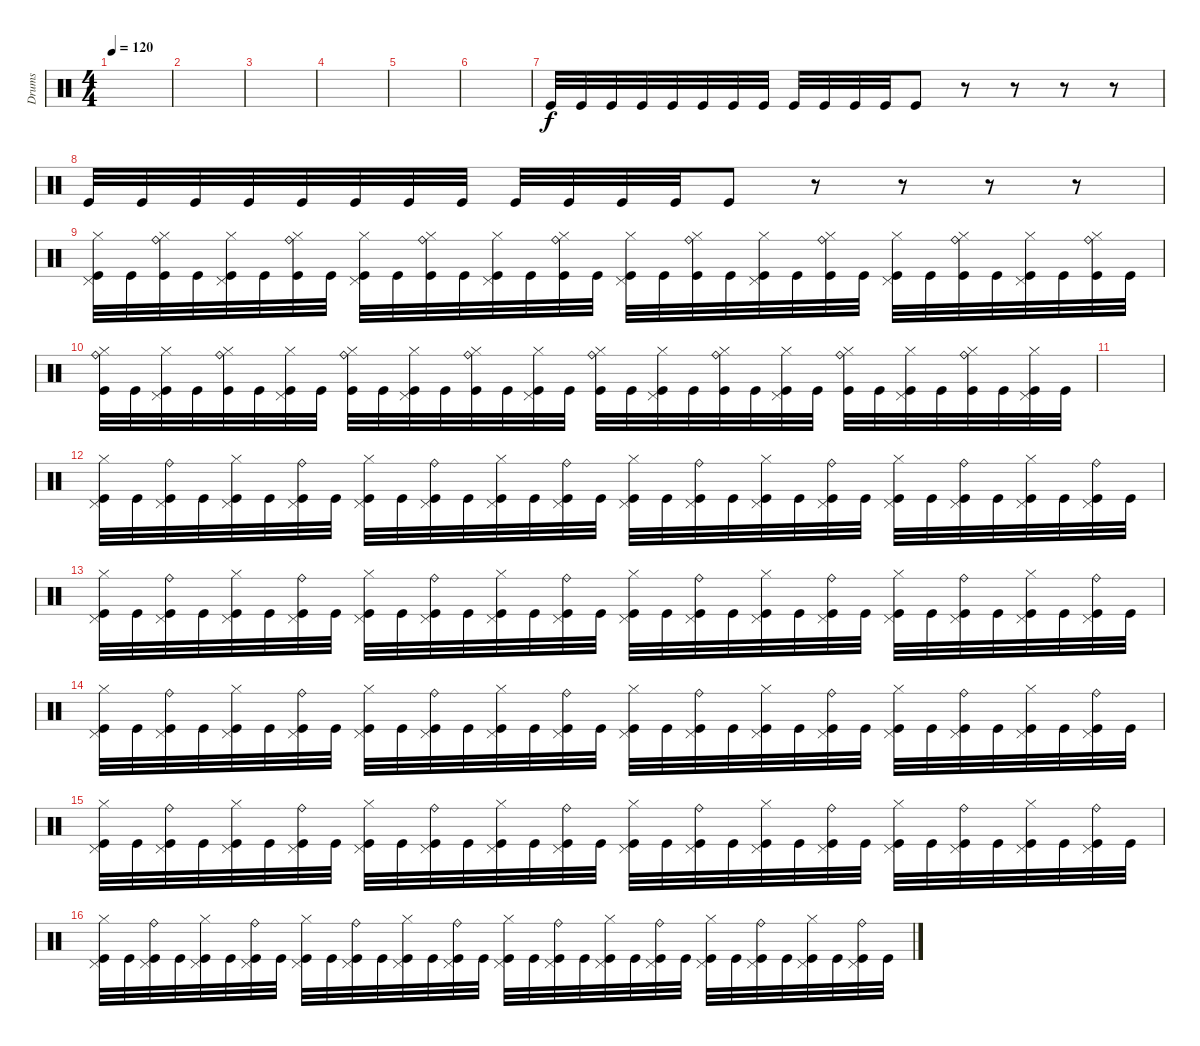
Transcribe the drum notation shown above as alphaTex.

\track ("Drums" "Drums") {instrument percussion}
\staff {score}
\articulation defaults
\ts (4 4)
\tempo 120
\clef neutral
\ks c
|
|
|
|
|
|
"Kick (hit)".32 "Kick (hit)".32 "Kick (hit)".32 "Kick (hit)".32 "Kick (hit)".32 "Kick (hit)".32 "Kick (hit)".32 "Kick (hit)".32 "Kick (hit)".32 "Kick (hit)".32 "Kick (hit)".32 "Kick (hit)".32 "Kick (hit)".8 r.8 r.8 r.8 r.8 |
"Kick (hit)".32 "Kick (hit)".32 "Kick (hit)".32 "Kick (hit)".32 "Kick (hit)".32 "Kick (hit)".32 "Kick (hit)".32 "Kick (hit)".32 "Kick (hit)".32 "Kick (hit)".32 "Kick (hit)".32 "Kick (hit)".32 "Kick (hit)".8 r.8 r.8 r.8 r.8 |
("Pedal Hi-Hat (hit)" "Hi-Hat (closed)" "Kick (hit)").32 "Kick (hit)".32 ("Ride (bell)" "Hi-Hat (closed)" "Kick (hit)").32 "Kick (hit)".32 ("Pedal Hi-Hat (hit)" "Hi-Hat (closed)" "Kick (hit)").32 "Kick (hit)".32 ("Ride (bell)" "Hi-Hat (closed)" "Kick (hit)").32 "Kick (hit)".32 ("Pedal Hi-Hat (hit)" "Hi-Hat (closed)" "Kick (hit)").32 "Kick (hit)".32 ("Ride (bell)" "Hi-Hat (closed)" "Kick (hit)").32 "Kick (hit)".32 ("Pedal Hi-Hat (hit)" "Hi-Hat (closed)" "Kick (hit)").32 "Kick (hit)".32 ("Ride (bell)" "Hi-Hat (closed)" "Kick (hit)").32 "Kick (hit)".32 ("Pedal Hi-Hat (hit)" "Hi-Hat (closed)" "Kick (hit)").32 "Kick (hit)".32 ("Ride (bell)" "Hi-Hat (closed)" "Kick (hit)").32 "Kick (hit)".32 ("Pedal Hi-Hat (hit)" "Hi-Hat (closed)" "Kick (hit)").32 "Kick (hit)".32 ("Ride (bell)" "Hi-Hat (closed)" "Kick (hit)").32 "Kick (hit)".32 ("Pedal Hi-Hat (hit)" "Hi-Hat (closed)" "Kick (hit)").32 "Kick (hit)".32 ("Ride (bell)" "Hi-Hat (closed)" "Kick (hit)").32 "Kick (hit)".32 ("Pedal Hi-Hat (hit)" "Hi-Hat (closed)" "Kick (hit)").32 "Kick (hit)".32 ("Ride (bell)" "Hi-Hat (closed)" "Kick (hit)").32 "Kick (hit)".32 |
("Ride (bell)" "Hi-Hat (closed)" "Kick (hit)").32 "Kick (hit)".32 ("Pedal Hi-Hat (hit)" "Hi-Hat (closed)" "Kick (hit)").32 "Kick (hit)".32 ("Ride (bell)" "Hi-Hat (closed)" "Kick (hit)").32 "Kick (hit)".32 ("Pedal Hi-Hat (hit)" "Hi-Hat (closed)" "Kick (hit)").32 "Kick (hit)".32 ("Ride (bell)" "Hi-Hat (closed)" "Kick (hit)").32 "Kick (hit)".32 ("Pedal Hi-Hat (hit)" "Hi-Hat (closed)" "Kick (hit)").32 "Kick (hit)".32 ("Ride (bell)" "Hi-Hat (closed)" "Kick (hit)").32 "Kick (hit)".32 ("Pedal Hi-Hat (hit)" "Hi-Hat (closed)" "Kick (hit)").32 "Kick (hit)".32 ("Ride (bell)" "Hi-Hat (closed)" "Kick (hit)").32 "Kick (hit)".32 ("Pedal Hi-Hat (hit)" "Hi-Hat (closed)" "Kick (hit)").32 "Kick (hit)".32 ("Ride (bell)" "Hi-Hat (closed)" "Kick (hit)").32 "Kick (hit)".32 ("Pedal Hi-Hat (hit)" "Hi-Hat (closed)" "Kick (hit)").32 "Kick (hit)".32 ("Ride (bell)" "Hi-Hat (closed)" "Kick (hit)").32 "Kick (hit)".32 ("Pedal Hi-Hat (hit)" "Hi-Hat (closed)" "Kick (hit)").32 "Kick (hit)".32 ("Ride (bell)" "Hi-Hat (closed)" "Kick (hit)").32 "Kick (hit)".32 ("Pedal Hi-Hat (hit)" "Hi-Hat (closed)" "Kick (hit)").32 "Kick (hit)".32 |
|
("Hi-Hat (closed)" "Pedal Hi-Hat (hit)" "Kick (hit)").32 "Kick (hit)".32 ("Ride (bell)" "Pedal Hi-Hat (hit)" "Kick (hit)").32 "Kick (hit)".32 ("Hi-Hat (closed)" "Pedal Hi-Hat (hit)" "Kick (hit)").32 "Kick (hit)".32 ("Ride (bell)" "Pedal Hi-Hat (hit)" "Kick (hit)").32 "Kick (hit)".32 ("Hi-Hat (closed)" "Pedal Hi-Hat (hit)" "Kick (hit)").32 "Kick (hit)".32 ("Ride (bell)" "Pedal Hi-Hat (hit)" "Kick (hit)").32 "Kick (hit)".32 ("Hi-Hat (closed)" "Pedal Hi-Hat (hit)" "Kick (hit)").32 "Kick (hit)".32 ("Ride (bell)" "Pedal Hi-Hat (hit)" "Kick (hit)").32 "Kick (hit)".32 ("Hi-Hat (closed)" "Pedal Hi-Hat (hit)" "Kick (hit)").32 "Kick (hit)".32 ("Ride (bell)" "Pedal Hi-Hat (hit)" "Kick (hit)").32 "Kick (hit)".32 ("Hi-Hat (closed)" "Pedal Hi-Hat (hit)" "Kick (hit)").32 "Kick (hit)".32 ("Ride (bell)" "Pedal Hi-Hat (hit)" "Kick (hit)").32 "Kick (hit)".32 ("Hi-Hat (closed)" "Pedal Hi-Hat (hit)" "Kick (hit)").32 "Kick (hit)".32 ("Ride (bell)" "Pedal Hi-Hat (hit)" "Kick (hit)").32 "Kick (hit)".32 ("Hi-Hat (closed)" "Pedal Hi-Hat (hit)" "Kick (hit)").32 "Kick (hit)".32 ("Ride (bell)" "Pedal Hi-Hat (hit)" "Kick (hit)").32 "Kick (hit)".32 |
("Hi-Hat (closed)" "Pedal Hi-Hat (hit)" "Kick (hit)").32 "Kick (hit)".32 ("Ride (bell)" "Pedal Hi-Hat (hit)" "Kick (hit)").32 "Kick (hit)".32 ("Hi-Hat (closed)" "Pedal Hi-Hat (hit)" "Kick (hit)").32 "Kick (hit)".32 ("Ride (bell)" "Pedal Hi-Hat (hit)" "Kick (hit)").32 "Kick (hit)".32 ("Hi-Hat (closed)" "Pedal Hi-Hat (hit)" "Kick (hit)").32 "Kick (hit)".32 ("Ride (bell)" "Pedal Hi-Hat (hit)" "Kick (hit)").32 "Kick (hit)".32 ("Hi-Hat (closed)" "Pedal Hi-Hat (hit)" "Kick (hit)").32 "Kick (hit)".32 ("Ride (bell)" "Pedal Hi-Hat (hit)" "Kick (hit)").32 "Kick (hit)".32 ("Hi-Hat (closed)" "Pedal Hi-Hat (hit)" "Kick (hit)").32 "Kick (hit)".32 ("Ride (bell)" "Pedal Hi-Hat (hit)" "Kick (hit)").32 "Kick (hit)".32 ("Hi-Hat (closed)" "Pedal Hi-Hat (hit)" "Kick (hit)").32 "Kick (hit)".32 ("Ride (bell)" "Pedal Hi-Hat (hit)" "Kick (hit)").32 "Kick (hit)".32 ("Hi-Hat (closed)" "Pedal Hi-Hat (hit)" "Kick (hit)").32 "Kick (hit)".32 ("Ride (bell)" "Pedal Hi-Hat (hit)" "Kick (hit)").32 "Kick (hit)".32 ("Hi-Hat (closed)" "Pedal Hi-Hat (hit)" "Kick (hit)").32 "Kick (hit)".32 ("Ride (bell)" "Pedal Hi-Hat (hit)" "Kick (hit)").32 "Kick (hit)".32 |
("Hi-Hat (closed)" "Pedal Hi-Hat (hit)" "Kick (hit)").32 "Kick (hit)".32 ("Ride (bell)" "Pedal Hi-Hat (hit)" "Kick (hit)").32 "Kick (hit)".32 ("Hi-Hat (closed)" "Pedal Hi-Hat (hit)" "Kick (hit)").32 "Kick (hit)".32 ("Ride (bell)" "Pedal Hi-Hat (hit)" "Kick (hit)").32 "Kick (hit)".32 ("Hi-Hat (closed)" "Pedal Hi-Hat (hit)" "Kick (hit)").32 "Kick (hit)".32 ("Ride (bell)" "Pedal Hi-Hat (hit)" "Kick (hit)").32 "Kick (hit)".32 ("Hi-Hat (closed)" "Pedal Hi-Hat (hit)" "Kick (hit)").32 "Kick (hit)".32 ("Ride (bell)" "Pedal Hi-Hat (hit)" "Kick (hit)").32 "Kick (hit)".32 ("Hi-Hat (closed)" "Pedal Hi-Hat (hit)" "Kick (hit)").32 "Kick (hit)".32 ("Ride (bell)" "Pedal Hi-Hat (hit)" "Kick (hit)").32 "Kick (hit)".32 ("Hi-Hat (closed)" "Pedal Hi-Hat (hit)" "Kick (hit)").32 "Kick (hit)".32 ("Ride (bell)" "Pedal Hi-Hat (hit)" "Kick (hit)").32 "Kick (hit)".32 ("Hi-Hat (closed)" "Pedal Hi-Hat (hit)" "Kick (hit)").32 "Kick (hit)".32 ("Ride (bell)" "Pedal Hi-Hat (hit)" "Kick (hit)").32 "Kick (hit)".32 ("Hi-Hat (closed)" "Pedal Hi-Hat (hit)" "Kick (hit)").32 "Kick (hit)".32 ("Ride (bell)" "Pedal Hi-Hat (hit)" "Kick (hit)").32 "Kick (hit)".32 |
("Hi-Hat (closed)" "Pedal Hi-Hat (hit)" "Kick (hit)").32 "Kick (hit)".32 ("Ride (bell)" "Pedal Hi-Hat (hit)" "Kick (hit)").32 "Kick (hit)".32 ("Hi-Hat (closed)" "Pedal Hi-Hat (hit)" "Kick (hit)").32 "Kick (hit)".32 ("Ride (bell)" "Pedal Hi-Hat (hit)" "Kick (hit)").32 "Kick (hit)".32 ("Hi-Hat (closed)" "Pedal Hi-Hat (hit)" "Kick (hit)").32 "Kick (hit)".32 ("Ride (bell)" "Pedal Hi-Hat (hit)" "Kick (hit)").32 "Kick (hit)".32 ("Hi-Hat (closed)" "Pedal Hi-Hat (hit)" "Kick (hit)").32 "Kick (hit)".32 ("Ride (bell)" "Pedal Hi-Hat (hit)" "Kick (hit)").32 "Kick (hit)".32 ("Hi-Hat (closed)" "Pedal Hi-Hat (hit)" "Kick (hit)").32 "Kick (hit)".32 ("Ride (bell)" "Pedal Hi-Hat (hit)" "Kick (hit)").32 "Kick (hit)".32 ("Hi-Hat (closed)" "Pedal Hi-Hat (hit)" "Kick (hit)").32 "Kick (hit)".32 ("Ride (bell)" "Pedal Hi-Hat (hit)" "Kick (hit)").32 "Kick (hit)".32 ("Hi-Hat (closed)" "Pedal Hi-Hat (hit)" "Kick (hit)").32 "Kick (hit)".32 ("Ride (bell)" "Pedal Hi-Hat (hit)" "Kick (hit)").32 "Kick (hit)".32 ("Hi-Hat (closed)" "Pedal Hi-Hat (hit)" "Kick (hit)").32 "Kick (hit)".32 ("Ride (bell)" "Pedal Hi-Hat (hit)" "Kick (hit)").32 "Kick (hit)".32 |
("Hi-Hat (closed)" "Pedal Hi-Hat (hit)" "Kick (hit)").32 "Kick (hit)".32 ("Ride (bell)" "Pedal Hi-Hat (hit)" "Kick (hit)").32 "Kick (hit)".32 ("Hi-Hat (closed)" "Pedal Hi-Hat (hit)" "Kick (hit)").32 "Kick (hit)".32 ("Ride (bell)" "Pedal Hi-Hat (hit)" "Kick (hit)").32 "Kick (hit)".32 ("Hi-Hat (closed)" "Pedal Hi-Hat (hit)" "Kick (hit)").32 "Kick (hit)".32 ("Ride (bell)" "Pedal Hi-Hat (hit)" "Kick (hit)").32 "Kick (hit)".32 ("Hi-Hat (closed)" "Pedal Hi-Hat (hit)" "Kick (hit)").32 "Kick (hit)".32 ("Ride (bell)" "Pedal Hi-Hat (hit)" "Kick (hit)").32 "Kick (hit)".32 ("Hi-Hat (closed)" "Pedal Hi-Hat (hit)" "Kick (hit)").32 "Kick (hit)".32 ("Ride (bell)" "Pedal Hi-Hat (hit)" "Kick (hit)").32 "Kick (hit)".32 ("Hi-Hat (closed)" "Pedal Hi-Hat (hit)" "Kick (hit)").32 "Kick (hit)".32 ("Ride (bell)" "Pedal Hi-Hat (hit)" "Kick (hit)").32 "Kick (hit)".32 ("Hi-Hat (closed)" "Pedal Hi-Hat (hit)" "Kick (hit)").32 "Kick (hit)".32 ("Ride (bell)" "Pedal Hi-Hat (hit)" "Kick (hit)").32 "Kick (hit)".32 ("Hi-Hat (closed)" "Pedal Hi-Hat (hit)" "Kick (hit)").32 "Kick (hit)".32 ("Ride (bell)" "Pedal Hi-Hat (hit)" "Kick (hit)").32 "Kick (hit)".32
